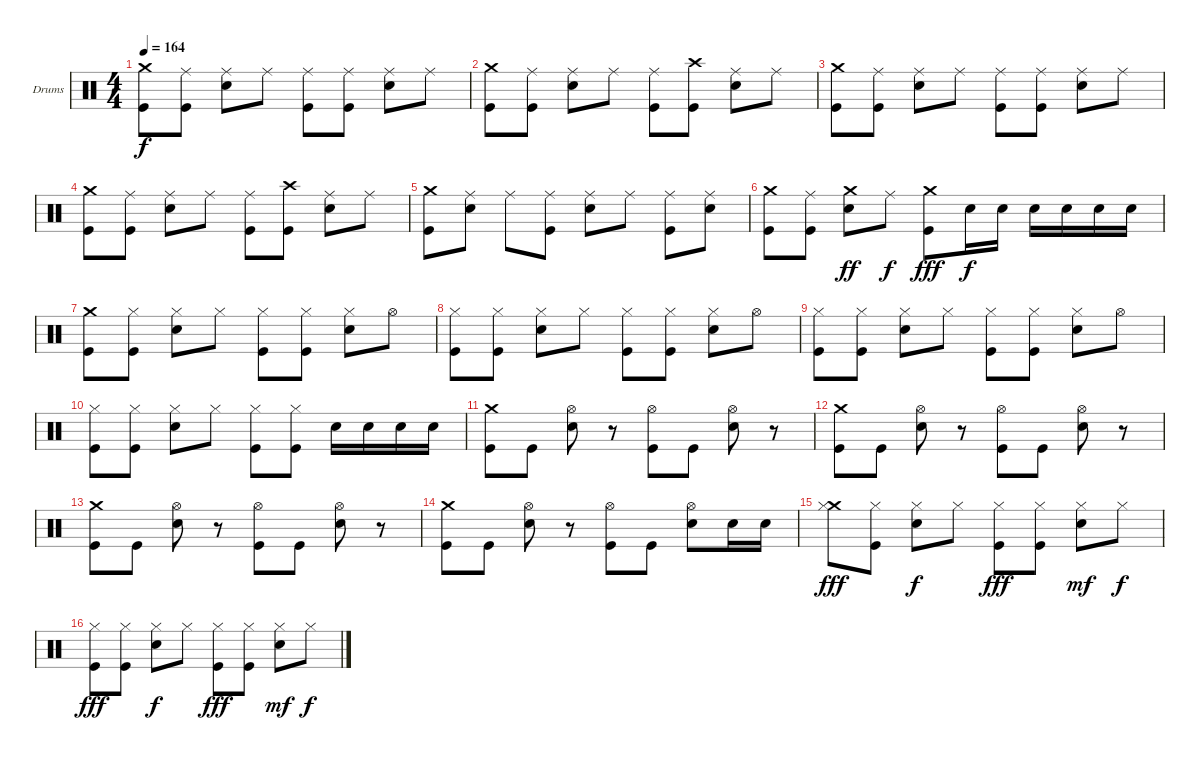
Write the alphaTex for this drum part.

\defaultSystemsLayout 4
\bracketExtendMode nobrackets
\firstSystemTrackNameOrientation horizontal
\otherSystemsTrackNameOrientation horizontal
\track ("Dave Abbruzzese" "Drums") {solo instrument percussion}
\staff {score}
\articulation defaults
\ts (4 4)
\tempo 164
\clef neutral
\ks c
("Kick (hit)" "Crash medium (hit)").8{dy f} ("Kick (hit)" "Ride (middle)").8 ("Snare (hit) 2" "Ride (middle)").8 "Ride (middle)".8 ("Kick (hit)" "Ride (middle)").8 ("Kick (hit)" "Ride (middle)").8 ("Snare (hit) 2" "Ride (middle)").8 "Ride (middle)".8 |
("Kick (hit)" "Crash medium (hit)").8 ("Kick (hit)" "Ride (middle)").8 ("Snare (hit) 2" "Ride (middle)").8 "Ride (middle)".8 ("Kick (hit)" "Ride (middle)").8 ("Kick (hit)" "Crash high (hit)").8 ("Snare (hit) 2" "Ride (middle)").8 "Ride (middle)".8 |
("Kick (hit)" "Crash medium (hit)").8 ("Kick (hit)" "Ride (middle)").8 ("Snare (hit) 2" "Ride (middle)").8 "Ride (middle)".8 ("Kick (hit)" "Ride (middle)").8 ("Kick (hit)" "Ride (middle)").8 ("Snare (hit) 2" "Ride (middle)").8 "Ride (middle)".8 |
("Kick (hit)" "Crash medium (hit)").8 ("Kick (hit)" "Ride (middle)").8 ("Snare (hit) 2" "Ride (middle)").8 "Ride (middle)".8 ("Kick (hit)" "Ride (middle)").8 ("Kick (hit)" "Crash high (hit)").8 ("Snare (hit) 2" "Ride (middle)").8 "Ride (middle)".8 |
("Kick (hit)" "Crash medium (hit)").8 ("Snare (hit) 2" "Ride (middle)").8 "Ride (middle)".8 ("Kick (hit)" "Ride (middle)").8 ("Snare (hit) 2" "Ride (middle)").8 "Ride (middle)".8 ("Kick (hit)" "Ride (middle)").8 ("Snare (hit) 2" "Ride (middle)").8 |
("Crash medium (hit)" "Kick (hit)").8 ("Kick (hit)" "Ride (middle)").8 ("Crash medium (hit)" "Snare (hit) 2").8{dy ff} "Ride (middle)".8{dy f} ("Crash medium (hit)" "Kick (hit)").8{dy fff} "Snare (hit) 2".16{dy f} "Snare (hit) 2".16 "Snare (hit) 2".16 "Snare (hit) 2".16 "Snare (hit) 2".16 "Snare (hit) 2".16 |
("Kick (hit)" "Crash medium (hit)").8 ("Kick (hit)" "Hi-Hat (closed)").8 ("Snare (hit) 2" "Hi-Hat (closed)").8 "Hi-Hat (closed)".8 ("Kick (hit)" "Hi-Hat (closed)").8 ("Kick (hit)" "Hi-Hat (closed)").8 ("Snare (hit) 2" "Hi-Hat (closed)").8 "Hi-Hat (open)".8 |
("Kick (hit)" "Hi-Hat (closed)").8 ("Kick (hit)" "Hi-Hat (closed)").8 ("Snare (hit) 2" "Hi-Hat (closed)").8 "Hi-Hat (closed)".8 ("Kick (hit)" "Hi-Hat (closed)").8 ("Kick (hit)" "Hi-Hat (closed)").8 ("Snare (hit) 2" "Hi-Hat (closed)").8 "Hi-Hat (open)".8 |
("Kick (hit)" "Hi-Hat (closed)").8 ("Kick (hit)" "Hi-Hat (closed)").8 ("Snare (hit) 2" "Hi-Hat (closed)").8 "Hi-Hat (closed)".8 ("Kick (hit)" "Hi-Hat (closed)").8 ("Kick (hit)" "Hi-Hat (closed)").8 ("Snare (hit) 2" "Hi-Hat (closed)").8 "Hi-Hat (open)".8 |
("Kick (hit)" "Hi-Hat (closed)").8 ("Kick (hit)" "Hi-Hat (closed)").8 ("Snare (hit) 2" "Hi-Hat (closed)").8 "Hi-Hat (closed)".8 ("Kick (hit)" "Hi-Hat (closed)").8 ("Kick (hit)" "Hi-Hat (closed)").8 "Snare (hit) 2".16 "Snare (hit) 2".16 "Snare (hit) 2".16 "Snare (hit) 2".16 |
("Kick (hit)" "Crash medium (hit)").8 "Kick (hit)".8 ("Snare (hit) 2" "Hi-Hat (open)").8 r.8 ("Kick (hit)" "Hi-Hat (open)").8 "Kick (hit)".8 ("Snare (hit) 2" "Hi-Hat (open)").8 r.8 |
("Kick (hit)" "Crash medium (hit)").8 "Kick (hit)".8 ("Snare (hit) 2" "Hi-Hat (open)").8 r.8 ("Kick (hit)" "Hi-Hat (open)").8 "Kick (hit)".8 ("Snare (hit) 2" "Hi-Hat (open)").8 r.8 |
("Kick (hit)" "Crash medium (hit)").8 "Kick (hit)".8 ("Snare (hit) 2" "Hi-Hat (open)").8 r.8 ("Kick (hit)" "Hi-Hat (open)").8 "Kick (hit)".8 ("Snare (hit) 2" "Hi-Hat (open)").8 r.8 |
("Kick (hit)" "Crash medium (hit)").8 "Kick (hit)".8 ("Snare (hit) 2" "Hi-Hat (open)").8 r.8 ("Kick (hit)" "Hi-Hat (open)").8 "Kick (hit)".8 ("Snare (hit) 2" "Hi-Hat (open)").8 "Snare (hit) 2".16 "Snare (hit) 2".16 |
("Crash medium (hit)" "Hi-Hat (closed)").8{dy fff} ("Kick (hit)" "Hi-Hat (closed)").8 ("Snare (hit) 2" "Hi-Hat (closed)").8{dy f} "Hi-Hat (closed)".8 ("Kick (hit)" "Hi-Hat (closed)").8{dy fff} ("Kick (hit)" "Hi-Hat (closed)").8 ("Snare (hit) 2" "Hi-Hat (closed)").8{dy mf} "Hi-Hat (closed)".8{dy f} |
("Kick (hit)" "Hi-Hat (closed)").8{dy fff} ("Kick (hit)" "Hi-Hat (closed)").8 ("Snare (hit) 2" "Hi-Hat (closed)").8{dy f} "Hi-Hat (closed)".8 ("Kick (hit)" "Hi-Hat (closed)").8{dy fff} ("Kick (hit)" "Hi-Hat (closed)").8 ("Snare (hit) 2" "Hi-Hat (closed)").8{dy mf} "Hi-Hat (closed)".8{dy f}
